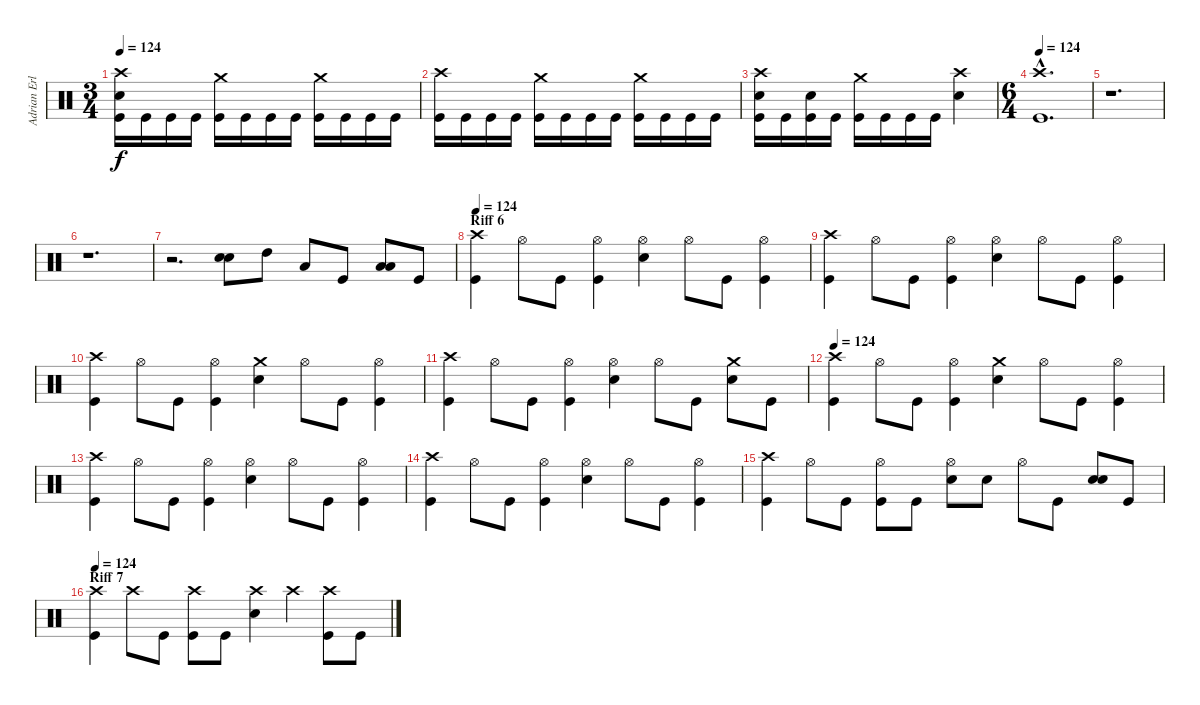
\track ("Adrian Erlandsson (Norseman of the Apoca" "Adrian Erl") {instrument percussion}
\staff {score}
\articulation defaults
\ts (3 4)
\tempo 124
\clef neutral
\ks c
("Crash high (hit)" "Electric Snare (hit)" "Kick (hit)").16{dy f} "Kick (hit)".16 "Kick (hit)".16 "Kick (hit)".16 ("Crash medium (hit)" "Kick (hit)").16 "Kick (hit)".16 "Kick (hit)".16 "Kick (hit)".16 ("Crash medium (hit)" "Kick (hit)").16 "Kick (hit)".16 "Kick (hit)".16 "Kick (hit)".16 |
("Crash high (hit)" "Kick (hit)").16 "Kick (hit)".16 "Kick (hit)".16 "Kick (hit)".16 ("Crash medium (hit)" "Kick (hit)").16 "Kick (hit)".16 "Kick (hit)".16 "Kick (hit)".16 ("Crash medium (hit)" "Kick (hit)").16 "Kick (hit)".16 "Kick (hit)".16 "Kick (hit)".16 |
("Crash high (hit)" "Electric Snare (hit)" "Kick (hit)").16 "Kick (hit)".16 ("Electric Snare (hit)" "Kick (hit)").16 "Kick (hit)".16 ("Crash medium (hit)" "Kick (hit)").16 "Kick (hit)".16 "Kick (hit)".16 "Kick (hit)".16 ("Crash high (hit)" "Electric Snare (hit)").4 |
\ts (6 4)
\tempo 124
("Crash high (hit)"{hac} "Kick (hit)"{hac}).1{d} |
r.1{d} |
r.1{d} |
r.2{d} ("Electric Snare (hit)" "Electric Snare (hit)").8{bu 240} "High Tom (hit)".8 "Low Tom (hit)".8 "Kick (hit)".8 ("Low Tom (hit)" "Low Tom (hit)").8{bu 240} "Kick (hit)".8 |
\section ("" "Riff 6")
\tempo 124
("Crash high (hit)" "Kick (hit)").4 "Hi-Hat (open)".8 "Kick (hit)".8 ("Hi-Hat (open)" "Kick (hit)").4 ("Hi-Hat (open)" "Electric Snare (hit)").4 "Hi-Hat (open)".8 "Kick (hit)".8 ("Hi-Hat (open)" "Kick (hit)").4 |
("Crash high (hit)" "Kick (hit)").4 "Hi-Hat (open)".8 "Kick (hit)".8 ("Hi-Hat (open)" "Kick (hit)").4 ("Hi-Hat (open)" "Electric Snare (hit)").4 "Hi-Hat (open)".8 "Kick (hit)".8 ("Hi-Hat (open)" "Kick (hit)").4 |
("Crash high (hit)" "Kick (hit)").4 "Hi-Hat (open)".8 "Kick (hit)".8 ("Hi-Hat (open)" "Kick (hit)").4 ("Crash medium (hit)" "Electric Snare (hit)").4 "Hi-Hat (open)".8 "Kick (hit)".8 ("Hi-Hat (open)" "Kick (hit)").4 |
("Crash high (hit)" "Kick (hit)").4 "Hi-Hat (open)".8 "Kick (hit)".8 ("Hi-Hat (open)" "Kick (hit)").4 ("Hi-Hat (open)" "Electric Snare (hit)").4 "Hi-Hat (open)".8 "Kick (hit)".8 ("Crash medium (hit)" "Electric Snare (hit)").8 "Kick (hit)".8 |
\tempo 124
("Crash high (hit)" "Kick (hit)").4 "Hi-Hat (open)".8 "Kick (hit)".8 ("Hi-Hat (open)" "Kick (hit)").4 ("Crash medium (hit)" "Electric Snare (hit)").4 "Hi-Hat (open)".8 "Kick (hit)".8 ("Hi-Hat (open)" "Kick (hit)").4 |
("Crash high (hit)" "Kick (hit)").4 "Hi-Hat (open)".8 "Kick (hit)".8 ("Hi-Hat (open)" "Kick (hit)").4 ("Hi-Hat (open)" "Electric Snare (hit)").4 "Hi-Hat (open)".8 "Kick (hit)".8 ("Hi-Hat (open)" "Kick (hit)").4 |
("Crash high (hit)" "Kick (hit)").4 "Hi-Hat (open)".8 "Kick (hit)".8 ("Hi-Hat (open)" "Kick (hit)").4 ("Hi-Hat (open)" "Electric Snare (hit)").4 "Hi-Hat (open)".8 "Kick (hit)".8 ("Hi-Hat (open)" "Kick (hit)").4 |
("Crash high (hit)" "Kick (hit)").4 "Hi-Hat (open)".8 "Kick (hit)".8 ("Hi-Hat (open)" "Kick (hit)").8 "Kick (hit)".8 ("Hi-Hat (open)" "Electric Snare (hit)").8 "Electric Snare (hit)".8 "Hi-Hat (open)".8 "Kick (hit)".8 ("Electric Snare (hit)" "Electric Snare (hit)").8{bu 120} "Kick (hit)".8 |
\section ("" "Riff 7")
\tempo 124
("Crash high (hit)" "Kick (hit)").4 "Crash high (hit)".8 "Kick (hit)".8 ("Crash high (hit)" "Kick (hit)").8 "Kick (hit)".8 ("Crash high (hit)" "Electric Snare (hit)").4 "Crash high (hit)".4 ("Crash high (hit)" "Kick (hit)").8 "Kick (hit)".8
